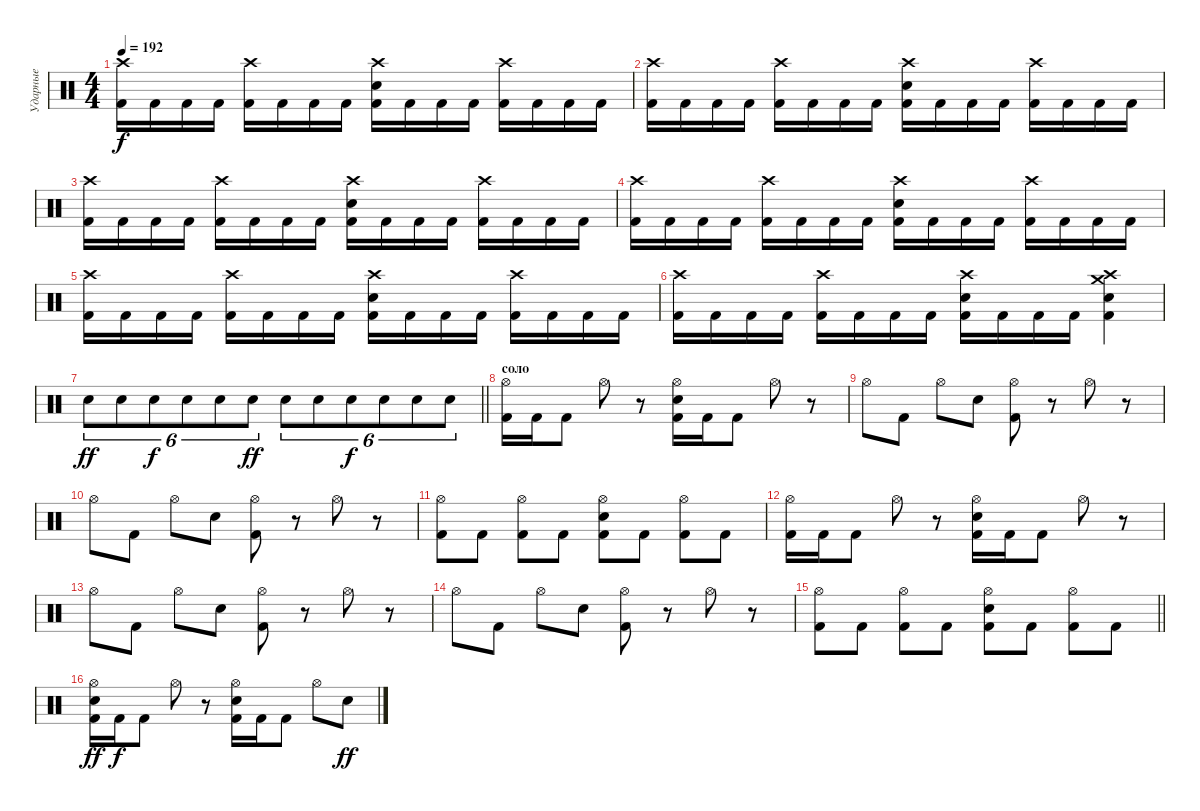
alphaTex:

\track ("Ударные" "Ударные") {instrument percussion}
\staff {score}
\articulation defaults
\ts (4 4)
\tempo 192
\clef neutral
\ks c
("Crash high (hit)" "Kick (hit) 2").16{dy f} "Kick (hit) 2".16 "Kick (hit) 2".16 "Kick (hit) 2".16 ("Crash high (hit)" "Kick (hit) 2").16 "Kick (hit) 2".16 "Kick (hit) 2".16 "Kick (hit) 2".16 ("Crash high (hit)" "Electric Snare (hit)" "Kick (hit) 2").16 "Kick (hit) 2".16 "Kick (hit) 2".16 "Kick (hit) 2".16 ("Crash high (hit)" "Kick (hit) 2").16 "Kick (hit) 2".16 "Kick (hit) 2".16 "Kick (hit) 2".16 |
("Crash high (hit)" "Kick (hit) 2").16 "Kick (hit) 2".16 "Kick (hit) 2".16 "Kick (hit) 2".16 ("Crash high (hit)" "Kick (hit) 2").16 "Kick (hit) 2".16 "Kick (hit) 2".16 "Kick (hit) 2".16 ("Crash high (hit)" "Electric Snare (hit)" "Kick (hit) 2").16 "Kick (hit) 2".16 "Kick (hit) 2".16 "Kick (hit) 2".16 ("Crash high (hit)" "Kick (hit) 2").16 "Kick (hit) 2".16 "Kick (hit) 2".16 "Kick (hit) 2".16 |
("Crash high (hit)" "Kick (hit) 2").16 "Kick (hit) 2".16 "Kick (hit) 2".16 "Kick (hit) 2".16 ("Crash high (hit)" "Kick (hit) 2").16 "Kick (hit) 2".16 "Kick (hit) 2".16 "Kick (hit) 2".16 ("Crash high (hit)" "Electric Snare (hit)" "Kick (hit) 2").16 "Kick (hit) 2".16 "Kick (hit) 2".16 "Kick (hit) 2".16 ("Crash high (hit)" "Kick (hit) 2").16 "Kick (hit) 2".16 "Kick (hit) 2".16 "Kick (hit) 2".16 |
("Crash high (hit)" "Kick (hit) 2").16 "Kick (hit) 2".16 "Kick (hit) 2".16 "Kick (hit) 2".16 ("Crash high (hit)" "Kick (hit) 2").16 "Kick (hit) 2".16 "Kick (hit) 2".16 "Kick (hit) 2".16 ("Crash high (hit)" "Electric Snare (hit)" "Kick (hit) 2").16 "Kick (hit) 2".16 "Kick (hit) 2".16 "Kick (hit) 2".16 ("Crash high (hit)" "Kick (hit) 2").16 "Kick (hit) 2".16 "Kick (hit) 2".16 "Kick (hit) 2".16 |
("Crash high (hit)" "Kick (hit) 2").16 "Kick (hit) 2".16 "Kick (hit) 2".16 "Kick (hit) 2".16 ("Crash high (hit)" "Kick (hit) 2").16 "Kick (hit) 2".16 "Kick (hit) 2".16 "Kick (hit) 2".16 ("Crash high (hit)" "Electric Snare (hit)" "Kick (hit) 2").16 "Kick (hit) 2".16 "Kick (hit) 2".16 "Kick (hit) 2".16 ("Crash high (hit)" "Kick (hit) 2").16 "Kick (hit) 2".16 "Kick (hit) 2".16 "Kick (hit) 2".16 |
("Crash high (hit)" "Kick (hit) 2").16 "Kick (hit) 2".16 "Kick (hit) 2".16 "Kick (hit) 2".16 ("Crash high (hit)" "Kick (hit) 2").16 "Kick (hit) 2".16 "Kick (hit) 2".16 "Kick (hit) 2".16 ("Crash high (hit)" "Electric Snare (hit)" "Kick (hit) 2").16 "Kick (hit) 2".16 "Kick (hit) 2".16 "Kick (hit) 2".16 ("Crash high (hit)" "Crash medium (hit)" "Electric Snare (hit)" "Kick (hit) 2").4 |
\barLineRight lightlight "Electric Snare (hit)".8{tu (6 4) dy ff} "Electric Snare (hit)".8{tu (6 4)} "Electric Snare (hit)".8{tu (6 4) dy f} "Electric Snare (hit)".8{tu (6 4)} "Electric Snare (hit)".8{tu (6 4)} "Electric Snare (hit)".8{tu (6 4) dy ff} "Electric Snare (hit)".8{tu (6 4)} "Electric Snare (hit)".8{tu (6 4)} "Electric Snare (hit)".8{tu (6 4) dy f} "Electric Snare (hit)".8{tu (6 4)} "Electric Snare (hit)".8{tu (6 4)} "Electric Snare (hit)".8{tu (6 4)}
|
\section ("" "соло")
("Hi-Hat (open)" "Kick (hit) 2").16 "Kick (hit) 2".16 "Kick (hit) 2".8 "Hi-Hat (open)".8 r.8 ("Hi-Hat (open)" "Electric Snare (hit)" "Kick (hit) 2").16 "Kick (hit) 2".16 "Kick (hit) 2".8 "Hi-Hat (open)".8 r.8 |
"Hi-Hat (open)".8 "Kick (hit) 2".8 "Hi-Hat (open)".8 "Electric Snare (hit)".8 ("Hi-Hat (open)" "Kick (hit) 2").8 r.8 "Hi-Hat (open)".8 r.8 |
"Hi-Hat (open)".8 "Kick (hit) 2".8 "Hi-Hat (open)".8 "Electric Snare (hit)".8 ("Hi-Hat (open)" "Kick (hit) 2").8 r.8 "Hi-Hat (open)".8 r.8 |
("Hi-Hat (open)" "Kick (hit) 2").8 "Kick (hit) 2".8 ("Hi-Hat (open)" "Kick (hit) 2").8 "Kick (hit) 2".8 ("Hi-Hat (open)" "Electric Snare (hit)" "Kick (hit) 2").8 "Kick (hit) 2".8 ("Hi-Hat (open)" "Kick (hit) 2").8 "Kick (hit) 2".8 |
("Hi-Hat (open)" "Kick (hit) 2").16 "Kick (hit) 2".16 "Kick (hit) 2".8 "Hi-Hat (open)".8 r.8 ("Hi-Hat (open)" "Electric Snare (hit)" "Kick (hit) 2").16 "Kick (hit) 2".16 "Kick (hit) 2".8 "Hi-Hat (open)".8 r.8 |
"Hi-Hat (open)".8 "Kick (hit) 2".8 "Hi-Hat (open)".8 "Electric Snare (hit)".8 ("Hi-Hat (open)" "Kick (hit) 2").8 r.8 "Hi-Hat (open)".8 r.8 |
"Hi-Hat (open)".8 "Kick (hit) 2".8 "Hi-Hat (open)".8 "Electric Snare (hit)".8 ("Hi-Hat (open)" "Kick (hit) 2").8 r.8 "Hi-Hat (open)".8 r.8 |
\barLineRight lightlight
("Hi-Hat (open)" "Kick (hit) 2").8 "Kick (hit) 2".8 ("Hi-Hat (open)" "Kick (hit) 2").8 "Kick (hit) 2".8 ("Hi-Hat (open)" "Electric Snare (hit)" "Kick (hit) 2").8 "Kick (hit) 2".8 ("Hi-Hat (open)" "Kick (hit) 2").8 "Kick (hit) 2".8 |
("Hi-Hat (open)" "Electric Snare (hit)" "Kick (hit) 2").16{dy ff} "Kick (hit) 2".16{dy f} "Kick (hit) 2".8 "Hi-Hat (open)".8 r.8 ("Hi-Hat (open)" "Electric Snare (hit)" "Kick (hit) 2").16 "Kick (hit) 2".16 "Kick (hit) 2".8 "Hi-Hat (open)".8 "Electric Snare (hit)".8{dy ff}
